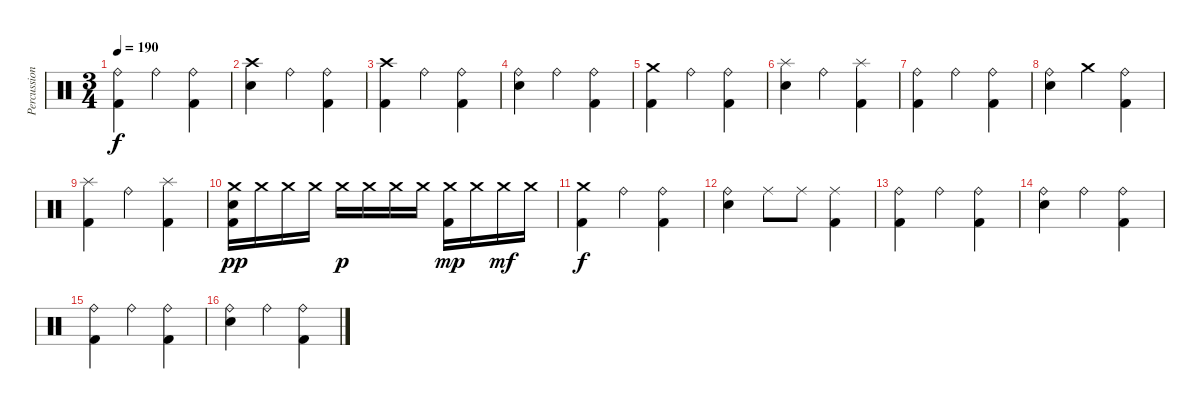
\track ("Percussion" "Percussion") {instrument percussion}
\staff {score}
\articulation defaults
\ts (3 4)
\tempo 190
\clef neutral
\ks c
("Ride (bell)" "Kick (hit) 2").4{dy f} "Ride (bell)".4 ("Ride (bell)" "Kick (hit) 2").4 |
("Crash high (hit)" "Electric Snare (hit)").4 "Ride (bell)".4 ("Ride (bell)" "Kick (hit) 2").4 |
("Crash high (hit)" "Kick (hit) 2").4 "Ride (bell)".4 ("Ride (bell)" "Kick (hit) 2").4 |
("Ride (bell)" "Electric Snare (hit)").4 "Ride (bell)".4 ("Ride (bell)" "Kick (hit) 2").4 |
("Crash medium (hit)" "Kick (hit) 2").4 "Ride (bell)".4 ("Ride (bell)" "Kick (hit) 2").4 |
("Splash (hit)" "Electric Snare (hit)").4 "Ride (bell)".4 ("Splash (hit)" "Kick (hit) 2").4 |
("Ride (bell)" "Kick (hit) 2").4 "Ride (bell)".4 ("Ride (bell)" "Kick (hit) 2").4 |
("Ride (bell)" "Electric Snare (hit)").4 "Crash medium (hit)".4 ("Ride (bell)" "Kick (hit) 2").4 |
("Splash (hit)" "Kick (hit) 2").4 "Ride (bell)".4 ("Splash (hit)" "Kick (hit) 2").4 |
("Crash medium (hit)" "Electric Snare (hit)" "Kick (hit) 2").16{dy pp} "Crash medium (hit)".16 "Crash medium (hit)".16 "Crash medium (hit)".16 "Crash medium (hit)".16{dy p} "Crash medium (hit)".16 "Crash medium (hit)".16 "Crash medium (hit)".16 ("Crash medium (hit)" "Kick (hit) 2").16{dy mp} "Crash medium (hit)".16 "Crash medium (hit)".16{dy mf} "Crash medium (hit)".16 |
("Crash medium (hit)" "Kick (hit) 2").4{dy f} "Ride (bell)".4 ("Ride (bell)" "Kick (hit) 2").4 |
("Ride (bell)" "Electric Snare (hit)").4 "Ride (middle)".8 "Ride (middle)".8 ("Ride (middle)" "Kick (hit) 2").4 |
("Ride (bell)" "Kick (hit) 2").4 "Ride (bell)".4 ("Ride (bell)" "Kick (hit) 2").4 |
("Ride (bell)" "Electric Snare (hit)").4 "Ride (bell)".4 ("Ride (bell)" "Kick (hit) 2").4 |
("Ride (bell)" "Kick (hit) 2").4 "Ride (bell)".4 ("Ride (bell)" "Kick (hit) 2").4 |
("Ride (bell)" "Electric Snare (hit)").4 "Ride (bell)".4 ("Ride (bell)" "Kick (hit) 2").4
